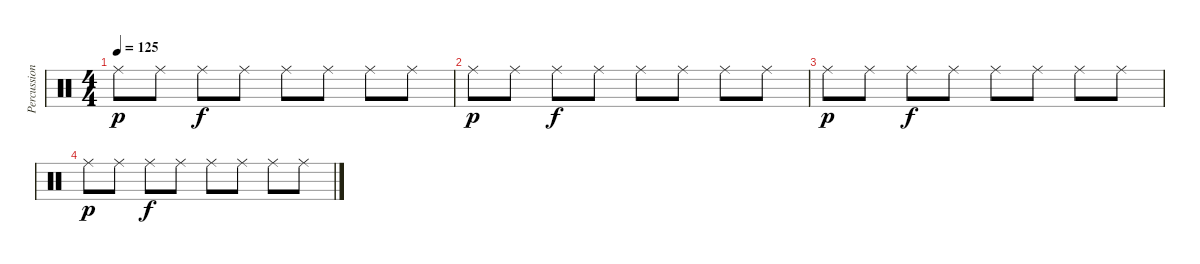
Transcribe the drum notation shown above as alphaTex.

\track ("Percussion" "Percussion") {instrument percussion}
\staff {score}
\articulation defaults
\ts (4 4)
\tempo 125
\clef neutral
\ks c "Ride (middle)".8{dy p} "Ride (middle)".8 "Ride (middle)".8{dy f} "Ride (middle)".8 "Ride (middle)".8 "Ride (middle)".8 "Ride (middle)".8 "Ride (middle)".8
|
"Ride (middle)".8{dy p} "Ride (middle)".8 "Ride (middle)".8{dy f} "Ride (middle)".8 "Ride (middle)".8 "Ride (middle)".8 "Ride (middle)".8 "Ride (middle)".8 |
"Ride (middle)".8{dy p} "Ride (middle)".8 "Ride (middle)".8{dy f} "Ride (middle)".8 "Ride (middle)".8 "Ride (middle)".8 "Ride (middle)".8 "Ride (middle)".8 |
"Ride (middle)".8{dy p} "Ride (middle)".8 "Ride (middle)".8{dy f} "Ride (middle)".8 "Ride (middle)".8 "Ride (middle)".8 "Ride (middle)".8 "Ride (middle)".8
